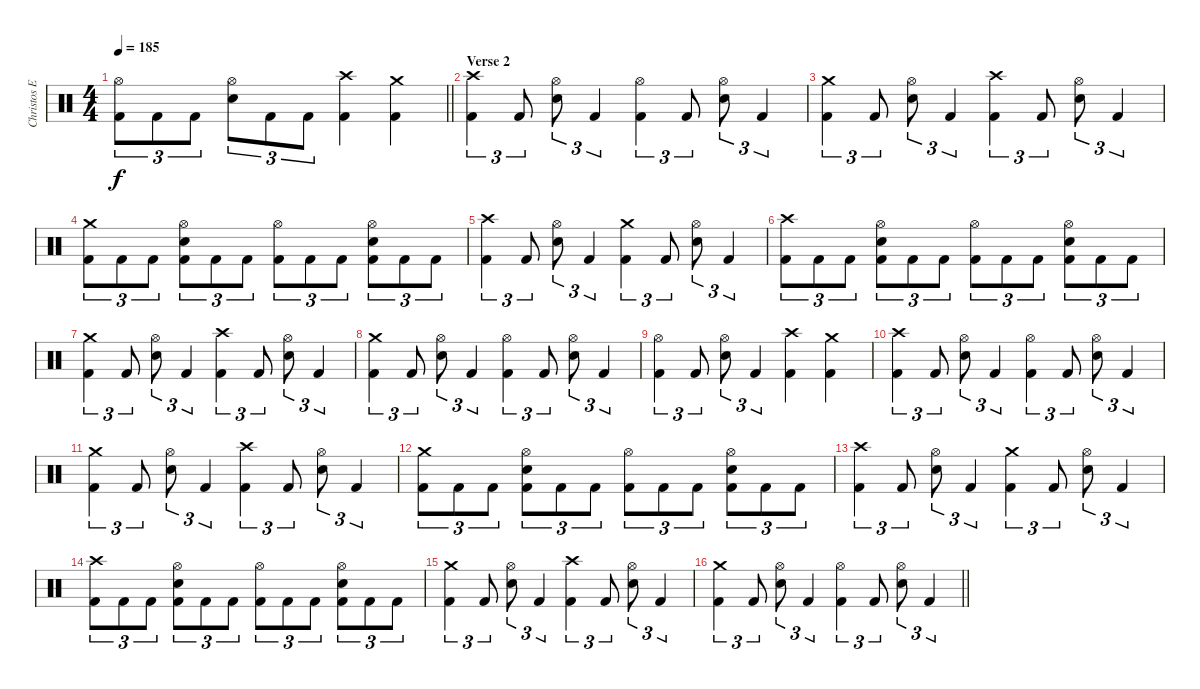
\track ("Christos Ephitimiadis (drums)" "Christos E") {instrument percussion}
\staff {score}
\articulation defaults
\ts (4 4)
\tempo 185
\clef neutral
\barLineRight lightlight
\ks c
("Hi-Hat (open)" "Kick (hit) 2").8{tu (3 2) dy f} "Kick (hit) 2".8{tu (3 2)} "Kick (hit) 2".8{tu (3 2)} ("Hi-Hat (open)" "Snare (hit) 2").8{tu (3 2)} "Kick (hit) 2".8{tu (3 2)} "Kick (hit) 2".8{tu (3 2)} ("Crash high (hit)" "Kick (hit) 2").4 ("Crash medium (hit)" "Kick (hit) 2").4 |
\section ("" "Verse 2")
("Crash high (hit)" "Kick (hit) 2").4{tu (3 2)} "Kick (hit) 2".8{tu (3 2)} ("Hi-Hat (open)" "Snare (hit) 2").8{tu (3 2)} "Kick (hit) 2".4{tu (3 2)} ("Hi-Hat (open)" "Kick (hit) 2").4{tu (3 2)} "Kick (hit) 2".8{tu (3 2)} ("Hi-Hat (open)" "Snare (hit) 2").8{tu (3 2)} "Kick (hit) 2".4{tu (3 2)} |
("Crash medium (hit)" "Kick (hit) 2").4{tu (3 2)} "Kick (hit) 2".8{tu (3 2)} ("Hi-Hat (open)" "Snare (hit) 2").8{tu (3 2)} "Kick (hit) 2".4{tu (3 2)} ("Crash high (hit)" "Kick (hit) 2").4{tu (3 2)} "Kick (hit) 2".8{tu (3 2)} ("Hi-Hat (open)" "Snare (hit) 2").8{tu (3 2)} "Kick (hit) 2".4{tu (3 2)} |
("Crash medium (hit)" "Kick (hit) 2").8{tu (3 2)} "Kick (hit) 2".8{tu (3 2)} "Kick (hit) 2".8{tu (3 2)} ("Hi-Hat (open)" "Snare (hit) 2" "Kick (hit) 2").8{tu (3 2)} "Kick (hit) 2".8{tu (3 2)} "Kick (hit) 2".8{tu (3 2)} ("Hi-Hat (open)" "Kick (hit) 2").8{tu (3 2)} "Kick (hit) 2".8{tu (3 2)} "Kick (hit) 2".8{tu (3 2)} ("Hi-Hat (open)" "Snare (hit) 2" "Kick (hit) 2").8{tu (3 2)} "Kick (hit) 2".8{tu (3 2)} "Kick (hit) 2".8{tu (3 2)} |
("Crash high (hit)" "Kick (hit) 2").4{tu (3 2)} "Kick (hit) 2".8{tu (3 2)} ("Hi-Hat (open)" "Snare (hit) 2").8{tu (3 2)} "Kick (hit) 2".4{tu (3 2)} ("Crash medium (hit)" "Kick (hit) 2").4{tu (3 2)} "Kick (hit) 2".8{tu (3 2)} ("Hi-Hat (open)" "Snare (hit) 2").8{tu (3 2)} "Kick (hit) 2".4{tu (3 2)} |
("Crash high (hit)" "Kick (hit) 2").8{tu (3 2)} "Kick (hit) 2".8{tu (3 2)} "Kick (hit) 2".8{tu (3 2)} ("Hi-Hat (open)" "Snare (hit) 2" "Kick (hit) 2").8{tu (3 2)} "Kick (hit) 2".8{tu (3 2)} "Kick (hit) 2".8{tu (3 2)} ("Hi-Hat (open)" "Kick (hit) 2").8{tu (3 2)} "Kick (hit) 2".8{tu (3 2)} "Kick (hit) 2".8{tu (3 2)} ("Hi-Hat (open)" "Snare (hit) 2" "Kick (hit) 2").8{tu (3 2)} "Kick (hit) 2".8{tu (3 2)} "Kick (hit) 2".8{tu (3 2)} |
("Crash medium (hit)" "Kick (hit) 2").4{tu (3 2)} "Kick (hit) 2".8{tu (3 2)} ("Hi-Hat (open)" "Snare (hit) 2").8{tu (3 2)} "Kick (hit) 2".4{tu (3 2)} ("Crash high (hit)" "Kick (hit) 2").4{tu (3 2)} "Kick (hit) 2".8{tu (3 2)} ("Hi-Hat (open)" "Snare (hit) 2").8{tu (3 2)} "Kick (hit) 2".4{tu (3 2)} |
("Crash medium (hit)" "Kick (hit) 2").4{tu (3 2)} "Kick (hit) 2".8{tu (3 2)} ("Hi-Hat (open)" "Snare (hit) 2").8{tu (3 2)} "Kick (hit) 2".4{tu (3 2)} ("Hi-Hat (open)" "Kick (hit) 2").4{tu (3 2)} "Kick (hit) 2".8{tu (3 2)} ("Hi-Hat (open)" "Snare (hit) 2").8{tu (3 2)} "Kick (hit) 2".4{tu (3 2)} |
("Hi-Hat (open)" "Kick (hit) 2").4{tu (3 2)} "Kick (hit) 2".8{tu (3 2)} ("Hi-Hat (open)" "Snare (hit) 2").8{tu (3 2)} "Kick (hit) 2".4{tu (3 2)} ("Crash high (hit)" "Kick (hit) 2").4 ("Crash medium (hit)" "Kick (hit) 2").4 |
("Crash high (hit)" "Kick (hit) 2").4{tu (3 2)} "Kick (hit) 2".8{tu (3 2)} ("Hi-Hat (open)" "Snare (hit) 2").8{tu (3 2)} "Kick (hit) 2".4{tu (3 2)} ("Hi-Hat (open)" "Kick (hit) 2").4{tu (3 2)} "Kick (hit) 2".8{tu (3 2)} ("Hi-Hat (open)" "Snare (hit) 2").8{tu (3 2)} "Kick (hit) 2".4{tu (3 2)} |
("Crash medium (hit)" "Kick (hit) 2").4{tu (3 2)} "Kick (hit) 2".8{tu (3 2)} ("Hi-Hat (open)" "Snare (hit) 2").8{tu (3 2)} "Kick (hit) 2".4{tu (3 2)} ("Crash high (hit)" "Kick (hit) 2").4{tu (3 2)} "Kick (hit) 2".8{tu (3 2)} ("Hi-Hat (open)" "Snare (hit) 2").8{tu (3 2)} "Kick (hit) 2".4{tu (3 2)} |
("Crash medium (hit)" "Kick (hit) 2").8{tu (3 2)} "Kick (hit) 2".8{tu (3 2)} "Kick (hit) 2".8{tu (3 2)} ("Hi-Hat (open)" "Snare (hit) 2" "Kick (hit) 2").8{tu (3 2)} "Kick (hit) 2".8{tu (3 2)} "Kick (hit) 2".8{tu (3 2)} ("Hi-Hat (open)" "Kick (hit) 2").8{tu (3 2)} "Kick (hit) 2".8{tu (3 2)} "Kick (hit) 2".8{tu (3 2)} ("Hi-Hat (open)" "Snare (hit) 2" "Kick (hit) 2").8{tu (3 2)} "Kick (hit) 2".8{tu (3 2)} "Kick (hit) 2".8{tu (3 2)} |
("Crash high (hit)" "Kick (hit) 2").4{tu (3 2)} "Kick (hit) 2".8{tu (3 2)} ("Hi-Hat (open)" "Snare (hit) 2").8{tu (3 2)} "Kick (hit) 2".4{tu (3 2)} ("Crash medium (hit)" "Kick (hit) 2").4{tu (3 2)} "Kick (hit) 2".8{tu (3 2)} ("Hi-Hat (open)" "Snare (hit) 2").8{tu (3 2)} "Kick (hit) 2".4{tu (3 2)} |
("Crash high (hit)" "Kick (hit) 2").8{tu (3 2)} "Kick (hit) 2".8{tu (3 2)} "Kick (hit) 2".8{tu (3 2)} ("Hi-Hat (open)" "Snare (hit) 2" "Kick (hit) 2").8{tu (3 2)} "Kick (hit) 2".8{tu (3 2)} "Kick (hit) 2".8{tu (3 2)} ("Hi-Hat (open)" "Kick (hit) 2").8{tu (3 2)} "Kick (hit) 2".8{tu (3 2)} "Kick (hit) 2".8{tu (3 2)} ("Hi-Hat (open)" "Snare (hit) 2" "Kick (hit) 2").8{tu (3 2)} "Kick (hit) 2".8{tu (3 2)} "Kick (hit) 2".8{tu (3 2)} |
("Crash medium (hit)" "Kick (hit) 2").4{tu (3 2)} "Kick (hit) 2".8{tu (3 2)} ("Hi-Hat (open)" "Snare (hit) 2").8{tu (3 2)} "Kick (hit) 2".4{tu (3 2)} ("Crash high (hit)" "Kick (hit) 2").4{tu (3 2)} "Kick (hit) 2".8{tu (3 2)} ("Hi-Hat (open)" "Snare (hit) 2").8{tu (3 2)} "Kick (hit) 2".4{tu (3 2)} |
\barLineRight lightlight
("Crash medium (hit)" "Kick (hit) 2").4{tu (3 2)} "Kick (hit) 2".8{tu (3 2)} ("Hi-Hat (open)" "Snare (hit) 2").8{tu (3 2)} "Kick (hit) 2".4{tu (3 2)} ("Hi-Hat (open)" "Kick (hit) 2").4{tu (3 2)} "Kick (hit) 2".8{tu (3 2)} ("Hi-Hat (open)" "Snare (hit) 2").8{tu (3 2)} "Kick (hit) 2".4{tu (3 2)}
